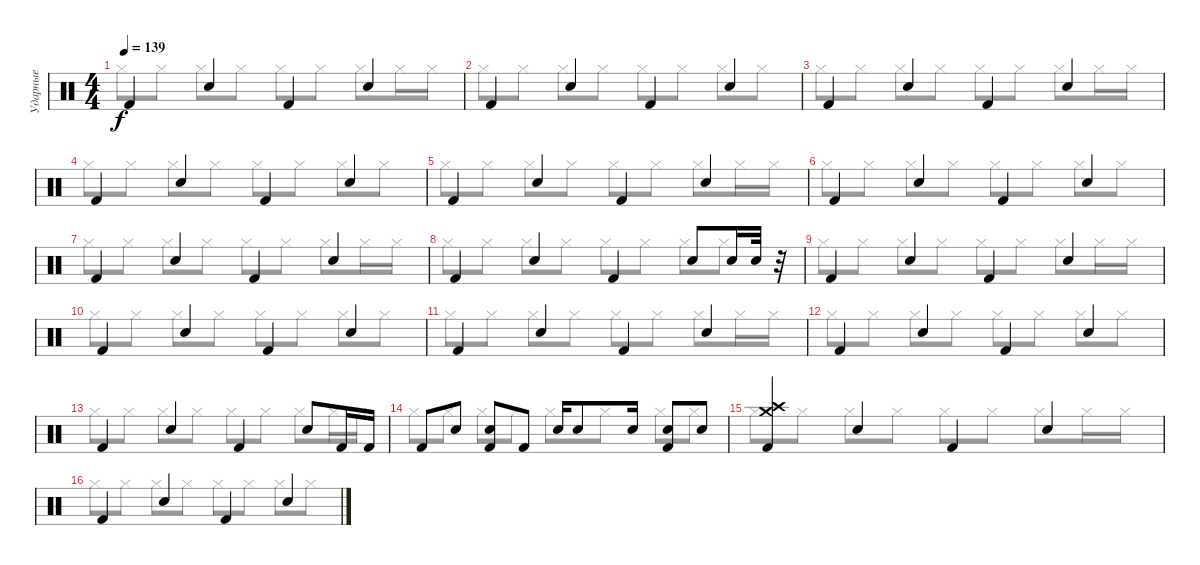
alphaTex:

\track ("Ударные" "Ударные") {instrument percussion}
\staff {score}
\articulation defaults
\voice
\ts (4 4)
\tempo 139
\clef neutral
\ks c "Kick (hit) 2".4{dy f} "Snare (hit) 2".4 "Kick (hit) 2".4 "Snare (hit) 2".4
|
"Kick (hit) 2".4 "Snare (hit) 2".4 "Kick (hit) 2".4 "Snare (hit) 2".4 |
"Kick (hit) 2".4 "Snare (hit) 2".4 "Kick (hit) 2".4 "Snare (hit) 2".4 |
"Kick (hit) 2".4 "Snare (hit) 2".4 "Kick (hit) 2".4 "Snare (hit) 2".4 |
"Kick (hit) 2".4 "Snare (hit) 2".4 "Kick (hit) 2".4 "Snare (hit) 2".4 |
"Kick (hit) 2".4 "Snare (hit) 2".4 "Kick (hit) 2".4 "Snare (hit) 2".4 |
"Kick (hit) 2".4 "Snare (hit) 2".4 "Kick (hit) 2".4 "Snare (hit) 2".4 |
"Kick (hit) 2".4 "Snare (hit) 2".4 "Kick (hit) 2".4 "Snare (hit) 2".8 "Snare (hit) 2".16 "Snare (hit) 2".32 r.32 |
"Kick (hit) 2".4 "Snare (hit) 2".4 "Kick (hit) 2".4 "Snare (hit) 2".4 |
"Kick (hit) 2".4 "Snare (hit) 2".4 "Kick (hit) 2".4 "Snare (hit) 2".4 |
"Kick (hit) 2".4 "Snare (hit) 2".4 "Kick (hit) 2".4 "Snare (hit) 2".4 |
"Kick (hit) 2".4 "Snare (hit) 2".4 "Kick (hit) 2".4 "Snare (hit) 2".4 |
"Kick (hit) 2".4 "Snare (hit) 2".4 "Kick (hit) 2".4 "Snare (hit) 2".8 "Kick (hit) 2".16 "Kick (hit) 2".16 |
"Kick (hit) 2".8 "Snare (hit) 2".8 ("Snare (hit) 2" "Kick (hit) 2").8 "Kick (hit) 2".8 "Snare (hit) 2".16 "Snare (hit) 2".8 "Snare (hit) 2".16 ("Snare (hit) 2" "Kick (hit) 2").8 "Snare (hit) 2".8 |
("Kick (hit) 2" "Crash high (hit)" "Crash medium (hit)").4 "Snare (hit) 2".4 "Kick (hit) 2".4 "Snare (hit) 2".4 |
"Kick (hit) 2".4 "Snare (hit) 2".4 "Kick (hit) 2".4 "Snare (hit) 2".4
\voice
\clef neutral
\ottava regular
\simile none
\ks c "Hi-Hat (closed)".8{dy f} "Hi-Hat (closed)".8 "Hi-Hat (closed)".8 "Hi-Hat (closed)".8 "Hi-Hat (closed)".8 "Hi-Hat (closed)".8 "Hi-Hat (closed)".8 "Hi-Hat (closed)".16 "Hi-Hat (closed)".16
|
"Hi-Hat (closed)".8 "Hi-Hat (closed)".8 "Hi-Hat (closed)".8 "Hi-Hat (closed)".8 "Hi-Hat (closed)".8 "Hi-Hat (closed)".8 "Hi-Hat (closed)".8 "Hi-Hat (closed)".8 |
"Hi-Hat (closed)".8 "Hi-Hat (closed)".8 "Hi-Hat (closed)".8 "Hi-Hat (closed)".8 "Hi-Hat (closed)".8 "Hi-Hat (closed)".8 "Hi-Hat (closed)".8 "Hi-Hat (closed)".16 "Hi-Hat (closed)".16 |
"Hi-Hat (closed)".8 "Hi-Hat (closed)".8 "Hi-Hat (closed)".8 "Hi-Hat (closed)".8 "Hi-Hat (closed)".8 "Hi-Hat (closed)".8 "Hi-Hat (closed)".8 "Hi-Hat (closed)".8 |
"Hi-Hat (closed)".8 "Hi-Hat (closed)".8 "Hi-Hat (closed)".8 "Hi-Hat (closed)".8 "Hi-Hat (closed)".8 "Hi-Hat (closed)".8 "Hi-Hat (closed)".8 "Hi-Hat (closed)".16 "Hi-Hat (closed)".16 |
"Hi-Hat (closed)".8 "Hi-Hat (closed)".8 "Hi-Hat (closed)".8 "Hi-Hat (closed)".8 "Hi-Hat (closed)".8 "Hi-Hat (closed)".8 "Hi-Hat (closed)".8 "Hi-Hat (closed)".8 |
"Hi-Hat (closed)".8 "Hi-Hat (closed)".8 "Hi-Hat (closed)".8 "Hi-Hat (closed)".8 "Hi-Hat (closed)".8 "Hi-Hat (closed)".8 "Hi-Hat (closed)".8 "Hi-Hat (closed)".16 "Hi-Hat (closed)".16 |
"Hi-Hat (closed)".8 "Hi-Hat (closed)".8 "Hi-Hat (closed)".8 "Hi-Hat (closed)".8 "Hi-Hat (closed)".8 "Hi-Hat (closed)".8 "Hi-Hat (closed)".8 "Hi-Hat (closed)".8 |
"Hi-Hat (closed)".8 "Hi-Hat (closed)".8 "Hi-Hat (closed)".8 "Hi-Hat (closed)".8 "Hi-Hat (closed)".8 "Hi-Hat (closed)".8 "Hi-Hat (closed)".8 "Hi-Hat (closed)".16 "Hi-Hat (closed)".16 |
"Hi-Hat (closed)".8 "Hi-Hat (closed)".8 "Hi-Hat (closed)".8 "Hi-Hat (closed)".8 "Hi-Hat (closed)".8 "Hi-Hat (closed)".8 "Hi-Hat (closed)".8 "Hi-Hat (closed)".8 |
"Hi-Hat (closed)".8 "Hi-Hat (closed)".8 "Hi-Hat (closed)".8 "Hi-Hat (closed)".8 "Hi-Hat (closed)".8 "Hi-Hat (closed)".8 "Hi-Hat (closed)".8 "Hi-Hat (closed)".16 "Hi-Hat (closed)".16 |
"Hi-Hat (closed)".8 "Hi-Hat (closed)".8 "Hi-Hat (closed)".8 "Hi-Hat (closed)".8 "Hi-Hat (closed)".8 "Hi-Hat (closed)".8 "Hi-Hat (closed)".8 "Hi-Hat (closed)".8 |
"Hi-Hat (closed)".8 "Hi-Hat (closed)".8 "Hi-Hat (closed)".8 "Hi-Hat (closed)".8 "Hi-Hat (closed)".8 "Hi-Hat (closed)".8 "Hi-Hat (closed)".8 "Hi-Hat (closed)".16 "Hi-Hat (closed)".16 |
"Hi-Hat (closed)".8 "Hi-Hat (closed)".8 "Hi-Hat (closed)".8 "Hi-Hat (closed)".8 "Hi-Hat (closed)".8 "Hi-Hat (closed)".8 "Hi-Hat (closed)".8 "Hi-Hat (closed)".8 |
"Hi-Hat (closed)".8 "Hi-Hat (closed)".8 "Hi-Hat (closed)".8 "Hi-Hat (closed)".8 "Hi-Hat (closed)".8 "Hi-Hat (closed)".8 "Hi-Hat (closed)".8 "Hi-Hat (closed)".16 "Hi-Hat (closed)".16 |
"Hi-Hat (closed)".8 "Hi-Hat (closed)".8 "Hi-Hat (closed)".8 "Hi-Hat (closed)".8 "Hi-Hat (closed)".8 "Hi-Hat (closed)".8 "Hi-Hat (closed)".8 "Hi-Hat (closed)".8
